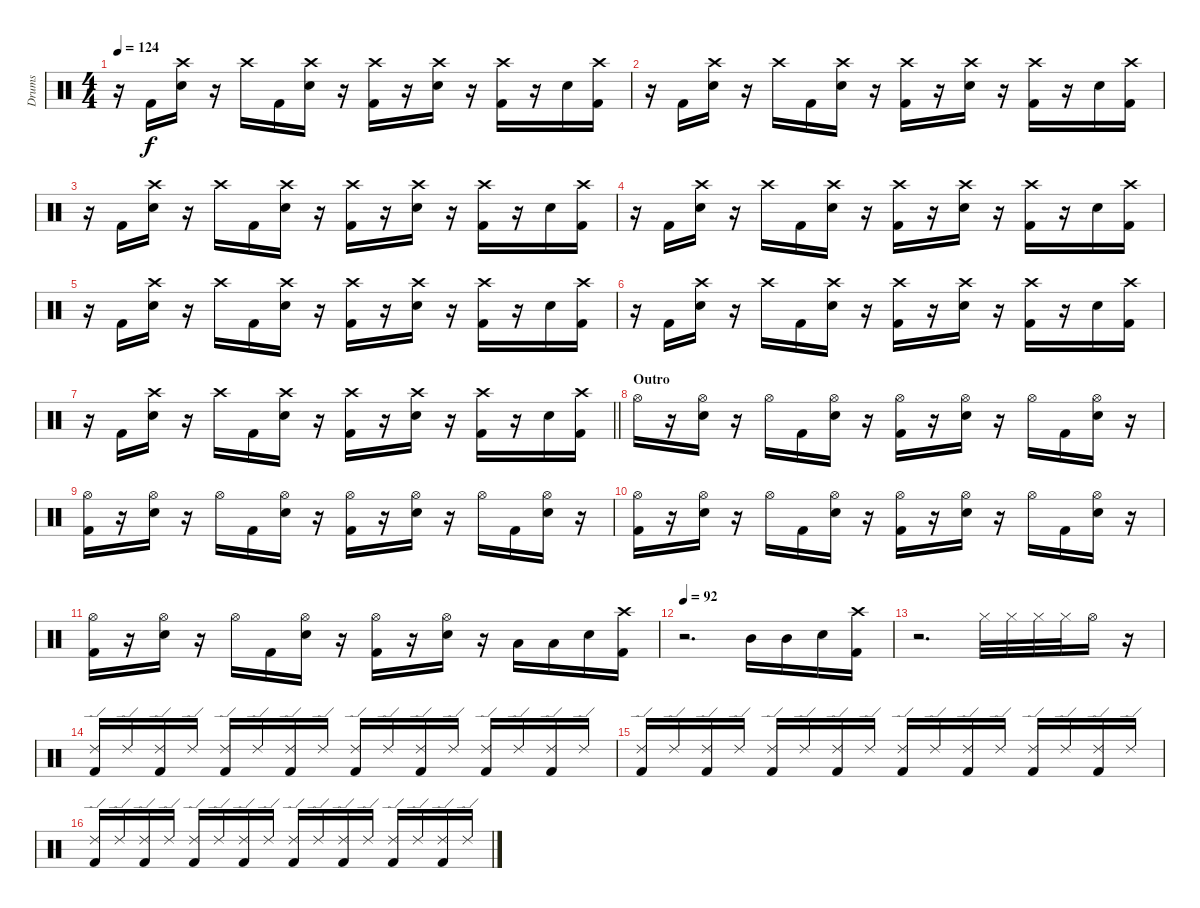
\track ("Drums" "Drums") {instrument percussion}
\staff {score}
\articulation defaults
\ts (4 4)
\tempo 124
\clef neutral
\ks c
r.16{dy f} "Kick (hit) 2".16 ("Crash high (hit)" "Snare (hit) 2").16 r.16 "Crash high (hit)".16 "Kick (hit) 2".16 ("Crash high (hit)" "Snare (hit) 2").16 r.16 ("Crash high (hit)" "Kick (hit) 2").16 r.16 ("Crash high (hit)" "Snare (hit) 2").16 r.16 ("Crash high (hit)" "Kick (hit) 2").16 r.16 "Snare (hit) 2".16 ("Crash high (hit)" "Kick (hit) 2").16 |
r.16 "Kick (hit) 2".16 ("Crash high (hit)" "Snare (hit) 2").16 r.16 "Crash high (hit)".16 "Kick (hit) 2".16 ("Crash high (hit)" "Snare (hit) 2").16 r.16 ("Crash high (hit)" "Kick (hit) 2").16 r.16 ("Crash high (hit)" "Snare (hit) 2").16 r.16 ("Crash high (hit)" "Kick (hit) 2").16 r.16 "Snare (hit) 2".16 ("Crash high (hit)" "Kick (hit) 2").16 |
r.16 "Kick (hit) 2".16 ("Crash high (hit)" "Snare (hit) 2").16 r.16 "Crash high (hit)".16 "Kick (hit) 2".16 ("Crash high (hit)" "Snare (hit) 2").16 r.16 ("Crash high (hit)" "Kick (hit) 2").16 r.16 ("Crash high (hit)" "Snare (hit) 2").16 r.16 ("Crash high (hit)" "Kick (hit) 2").16 r.16 "Snare (hit) 2".16 ("Crash high (hit)" "Kick (hit) 2").16 |
r.16 "Kick (hit) 2".16 ("Crash high (hit)" "Snare (hit) 2").16 r.16 "Crash high (hit)".16 "Kick (hit) 2".16 ("Crash high (hit)" "Snare (hit) 2").16 r.16 ("Crash high (hit)" "Kick (hit) 2").16 r.16 ("Crash high (hit)" "Snare (hit) 2").16 r.16 ("Crash high (hit)" "Kick (hit) 2").16 r.16 "Snare (hit) 2".16 ("Crash high (hit)" "Kick (hit) 2").16 |
r.16 "Kick (hit) 2".16 ("Crash high (hit)" "Snare (hit) 2").16 r.16 "Crash high (hit)".16 "Kick (hit) 2".16 ("Crash high (hit)" "Snare (hit) 2").16 r.16 ("Crash high (hit)" "Kick (hit) 2").16 r.16 ("Crash high (hit)" "Snare (hit) 2").16 r.16 ("Crash high (hit)" "Kick (hit) 2").16 r.16 "Snare (hit) 2".16 ("Crash high (hit)" "Kick (hit) 2").16 |
r.16 "Kick (hit) 2".16 ("Crash high (hit)" "Snare (hit) 2").16 r.16 "Crash high (hit)".16 "Kick (hit) 2".16 ("Crash high (hit)" "Snare (hit) 2").16 r.16 ("Crash high (hit)" "Kick (hit) 2").16 r.16 ("Crash high (hit)" "Snare (hit) 2").16 r.16 ("Crash high (hit)" "Kick (hit) 2").16 r.16 "Snare (hit) 2".16 ("Crash high (hit)" "Kick (hit) 2").16 |
\barLineRight lightlight
r.16 "Kick (hit) 2".16 ("Crash high (hit)" "Snare (hit) 2").16 r.16 "Crash high (hit)".16 "Kick (hit) 2".16 ("Crash high (hit)" "Snare (hit) 2").16 r.16 ("Crash high (hit)" "Kick (hit) 2").16 r.16 ("Crash high (hit)" "Snare (hit) 2").16 r.16 ("Crash high (hit)" "Kick (hit) 2").16 r.16 "Snare (hit) 2".16 ("Crash high (hit)" "Kick (hit) 2").16 |
\section ("" "Outro")
"Hi-Hat (open)".16 r.16 ("Hi-Hat (open)" "Snare (hit) 2").16 r.16 "Hi-Hat (open)".16 "Kick (hit) 2".16 ("Hi-Hat (open)" "Snare (hit) 2").16 r.16 ("Hi-Hat (open)" "Kick (hit) 2").16 r.16 ("Hi-Hat (open)" "Snare (hit) 2").16 r.16 "Hi-Hat (open)".16 "Kick (hit) 2".16 ("Hi-Hat (open)" "Snare (hit) 2").16 r.16 |
("Hi-Hat (open)" "Kick (hit) 2").16 r.16 ("Hi-Hat (open)" "Snare (hit) 2").16 r.16 "Hi-Hat (open)".16 "Kick (hit) 2".16 ("Hi-Hat (open)" "Snare (hit) 2").16 r.16 ("Hi-Hat (open)" "Kick (hit) 2").16 r.16 ("Hi-Hat (open)" "Snare (hit) 2").16 r.16 "Hi-Hat (open)".16 "Kick (hit) 2".16 ("Hi-Hat (open)" "Snare (hit) 2").16 r.16 |
("Hi-Hat (open)" "Kick (hit) 2").16 r.16 ("Hi-Hat (open)" "Snare (hit) 2").16 r.16 "Hi-Hat (open)".16 "Kick (hit) 2".16 ("Hi-Hat (open)" "Snare (hit) 2").16 r.16 ("Hi-Hat (open)" "Kick (hit) 2").16 r.16 ("Hi-Hat (open)" "Snare (hit) 2").16 r.16 "Hi-Hat (open)".16 "Kick (hit) 2".16 ("Hi-Hat (open)" "Snare (hit) 2").16 r.16 |
("Hi-Hat (open)" "Kick (hit) 2").16 r.16 ("Hi-Hat (open)" "Snare (hit) 2").16 r.16 "Hi-Hat (open)".16 "Kick (hit) 2".16 ("Hi-Hat (open)" "Snare (hit) 2").16 r.16 ("Hi-Hat (open)" "Kick (hit) 2").16 r.16 ("Hi-Hat (open)" "Snare (hit) 2").16 r.16 "Low Floor Tom (hit)".16 "Low Floor Tom (hit)".16 "Snare (hit) 2".16 ("Crash high (hit)" "Kick (hit) 2").16 |
\tempo 92
r.2{d} "Mid Tom (hit)".16 "Mid Tom (hit)".16 "Snare (hit) 2".16 ("Crash high (hit)" "Kick (hit) 2").16 |
r.2{d} "Hi-Hat (closed)".32 "Hi-Hat (closed)".32 "Hi-Hat (closed)".32 "Hi-Hat (closed)".32 "Hi-Hat (open)".16 r.16 |
("Ride (edge) 2" "Kick (hit) 2").16 "Ride (edge) 2".16 ("Ride (edge) 2" "Kick (hit) 2").16 "Ride (edge) 2".16 ("Ride (edge) 2" "Kick (hit) 2").16 "Ride (edge) 2".16 ("Ride (edge) 2" "Kick (hit) 2").16 "Ride (edge) 2".16 ("Ride (edge) 2" "Kick (hit) 2").16 "Ride (edge) 2".16 ("Ride (edge) 2" "Kick (hit) 2").16 "Ride (edge) 2".16 ("Ride (edge) 2" "Kick (hit) 2").16 "Ride (edge) 2".16 ("Ride (edge) 2" "Kick (hit) 2").16 "Ride (edge) 2".16 |
("Ride (edge) 2" "Kick (hit) 2").16 "Ride (edge) 2".16 ("Ride (edge) 2" "Kick (hit) 2").16 "Ride (edge) 2".16 ("Ride (edge) 2" "Kick (hit) 2").16 "Ride (edge) 2".16 ("Ride (edge) 2" "Kick (hit) 2").16 "Ride (edge) 2".16 ("Ride (edge) 2" "Kick (hit) 2").16 "Ride (edge) 2".16 ("Ride (edge) 2" "Kick (hit) 2").16 "Ride (edge) 2".16 ("Ride (edge) 2" "Kick (hit) 2").16 "Ride (edge) 2".16 ("Ride (edge) 2" "Kick (hit) 2").16 "Ride (edge) 2".16 |
("Ride (edge) 2" "Kick (hit) 2").16 "Ride (edge) 2".16 ("Ride (edge) 2" "Kick (hit) 2").16 "Ride (edge) 2".16 ("Ride (edge) 2" "Kick (hit) 2").16 "Ride (edge) 2".16 ("Ride (edge) 2" "Kick (hit) 2").16 "Ride (edge) 2".16 ("Ride (edge) 2" "Kick (hit) 2").16 "Ride (edge) 2".16 ("Ride (edge) 2" "Kick (hit) 2").16 "Ride (edge) 2".16 ("Ride (edge) 2" "Kick (hit) 2").16 "Ride (edge) 2".16 ("Ride (edge) 2" "Kick (hit) 2").16 "Ride (edge) 2".16
